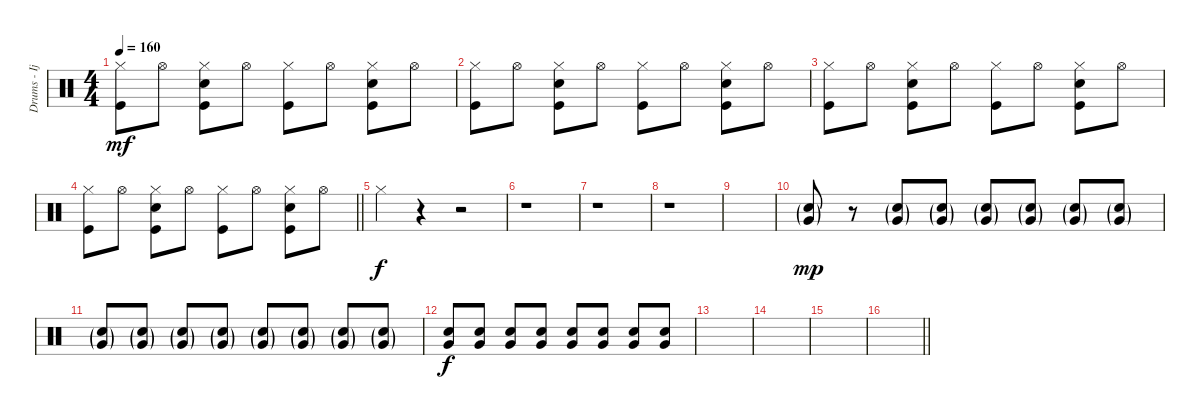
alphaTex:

\track ("Drums - Ijichi" "Drums - Ij") {instrument percussion}
\staff {score}
\articulation defaults
\ts (4 4)
\tempo 160
\clef neutral
\ks c
("Hi-Hat (closed)" "Kick (hit)").8{dy mf} "Hi-Hat (open)".8 ("Hi-Hat (closed)" "Electric Snare (hit)" "Kick (hit)").8 "Hi-Hat (open)".8 ("Hi-Hat (closed)" "Kick (hit)").8 "Hi-Hat (open)".8 ("Hi-Hat (closed)" "Electric Snare (hit)" "Kick (hit)").8 "Hi-Hat (open)".8 |
("Hi-Hat (closed)" "Kick (hit)").8 "Hi-Hat (open)".8 ("Hi-Hat (closed)" "Electric Snare (hit)" "Kick (hit)").8 "Hi-Hat (open)".8 ("Hi-Hat (closed)" "Kick (hit)").8 "Hi-Hat (open)".8 ("Hi-Hat (closed)" "Electric Snare (hit)" "Kick (hit)").8 "Hi-Hat (open)".8 |
("Hi-Hat (closed)" "Kick (hit)").8 "Hi-Hat (open)".8 ("Hi-Hat (closed)" "Electric Snare (hit)" "Kick (hit)").8 "Hi-Hat (open)".8 ("Hi-Hat (closed)" "Kick (hit)").8 "Hi-Hat (open)".8 ("Hi-Hat (closed)" "Electric Snare (hit)" "Kick (hit)").8 "Hi-Hat (open)".8 |
\barLineRight lightlight
("Hi-Hat (closed)" "Kick (hit)").8 "Hi-Hat (open)".8 ("Hi-Hat (closed)" "Electric Snare (hit)" "Kick (hit)").8 "Hi-Hat (open)".8 ("Hi-Hat (closed)" "Kick (hit)").8 "Hi-Hat (open)".8 ("Hi-Hat (closed)" "Electric Snare (hit)" "Kick (hit)").8 "Hi-Hat (open)".8 |
"Hi-Hat (closed)".4{dy f} r.4 r.2 |
r.1 |
r.1 |
r.1 |
|
("Very Low Tom (hit)"{g} "Electric Snare (hit)"{g}).8{dy mp} r.8 ("Very Low Tom (hit)"{g} "Electric Snare (hit)"{g}).8 ("Very Low Tom (hit)"{g} "Electric Snare (hit)"{g}).8 ("Very Low Tom (hit)"{g} "Electric Snare (hit)"{g}).8 ("Very Low Tom (hit)"{g} "Electric Snare (hit)"{g}).8 ("Very Low Tom (hit)"{g} "Electric Snare (hit)"{g}).8 ("Very Low Tom (hit)"{g} "Electric Snare (hit)"{g}).8 |
("Very Low Tom (hit)"{g} "Electric Snare (hit)"{g}).8 ("Very Low Tom (hit)"{g} "Electric Snare (hit)"{g}).8 ("Very Low Tom (hit)"{g} "Electric Snare (hit)"{g}).8 ("Very Low Tom (hit)"{g} "Electric Snare (hit)"{g}).8 ("Very Low Tom (hit)"{g} "Electric Snare (hit)"{g}).8 ("Very Low Tom (hit)"{g} "Electric Snare (hit)"{g}).8 ("Very Low Tom (hit)"{g} "Electric Snare (hit)"{g}).8 ("Very Low Tom (hit)"{g} "Electric Snare (hit)"{g}).8 |
("Very Low Tom (hit)" "Electric Snare (hit)").8{dy f} ("Very Low Tom (hit)" "Electric Snare (hit)").8 ("Very Low Tom (hit)" "Electric Snare (hit)").8 ("Very Low Tom (hit)" "Electric Snare (hit)").8 ("Very Low Tom (hit)" "Electric Snare (hit)").8 ("Very Low Tom (hit)" "Electric Snare (hit)").8 ("Very Low Tom (hit)" "Electric Snare (hit)").8 ("Very Low Tom (hit)" "Electric Snare (hit)").8 |
|
|
|
\barLineRight lightlight
